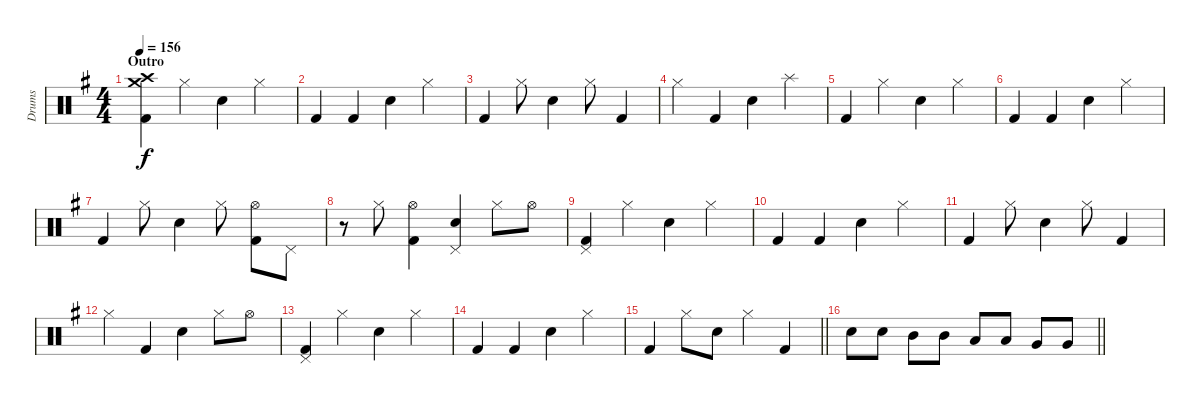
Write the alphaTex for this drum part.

\track ("Drums" "Drums") {instrument percussion}
\staff {score}
\articulation defaults
\ts (4 4)
\section ("" "Outro")
\tempo 156
\clef neutral
\ks g
("Crash high (hit)" "Crash medium (hit)" "Kick (hit) 2").4{dy f} "Hi-Hat (closed)".4 "Snare (hit) 2".4 "Hi-Hat (closed)".4 |
"Kick (hit) 2".4 "Kick (hit) 2".4 "Snare (hit) 2".4 "Hi-Hat (closed)".4 |
"Kick (hit) 2".4 "Hi-Hat (closed)".8 "Snare (hit) 2".4 "Hi-Hat (closed)".8 "Kick (hit) 2".4 |
"Hi-Hat (closed)".4 "Kick (hit) 2".4 "Snare (hit) 2".4 "Splash (hit)".4 |
"Kick (hit) 2".4 "Hi-Hat (closed)".4 "Snare (hit) 2".4 "Hi-Hat (closed)".4 |
"Kick (hit) 2".4 "Kick (hit) 2".4 "Snare (hit) 2".4 "Hi-Hat (closed)".4 |
"Kick (hit) 2".4 "Hi-Hat (closed)".8 "Snare (hit) 2".4 "Hi-Hat (closed)".8 ("Hi-Hat (open)" "Kick (hit) 2").8 "Pedal Hi-Hat (hit)".8 |
r.8 "Hi-Hat (closed)".8 ("Hi-Hat (open)" "Kick (hit) 2").4 ("Pedal Hi-Hat (hit)" "Snare (hit) 2").4 "Hi-Hat (closed)".8 "Hi-Hat (open)".8 |
("Pedal Hi-Hat (hit)" "Kick (hit) 2").4 "Hi-Hat (closed)".4 "Snare (hit) 2".4 "Hi-Hat (closed)".4 |
"Kick (hit) 2".4 "Kick (hit) 2".4 "Snare (hit) 2".4 "Hi-Hat (closed)".4 |
"Kick (hit) 2".4 "Hi-Hat (closed)".8 "Snare (hit) 2".4 "Hi-Hat (closed)".8 "Kick (hit) 2".4 |
"Hi-Hat (closed)".4 "Kick (hit) 2".4 "Snare (hit) 2".4 "Hi-Hat (closed)".8 "Hi-Hat (open)".8 |
("Pedal Hi-Hat (hit)" "Kick (hit) 2").4 "Hi-Hat (closed)".4 "Snare (hit) 2".4 "Hi-Hat (closed)".4 |
"Kick (hit) 2".4 "Kick (hit) 2".4 "Snare (hit) 2".4 "Hi-Hat (closed)".4 |
\barLineRight lightlight "Kick (hit) 2".4 "Hi-Hat (closed)".8 "Snare (hit) 2".8 "Hi-Hat (closed)".4 "Kick (hit) 2".4
|
\barLineRight lightlight "Snare (hit) 2".8 "Snare (hit) 2".8 "Mid Tom (hit)".8 "Mid Tom (hit)".8 "Low Tom (hit)".8 "Low Tom (hit)".8 "Very Low Tom (hit)".8 "Very Low Tom (hit)".8
